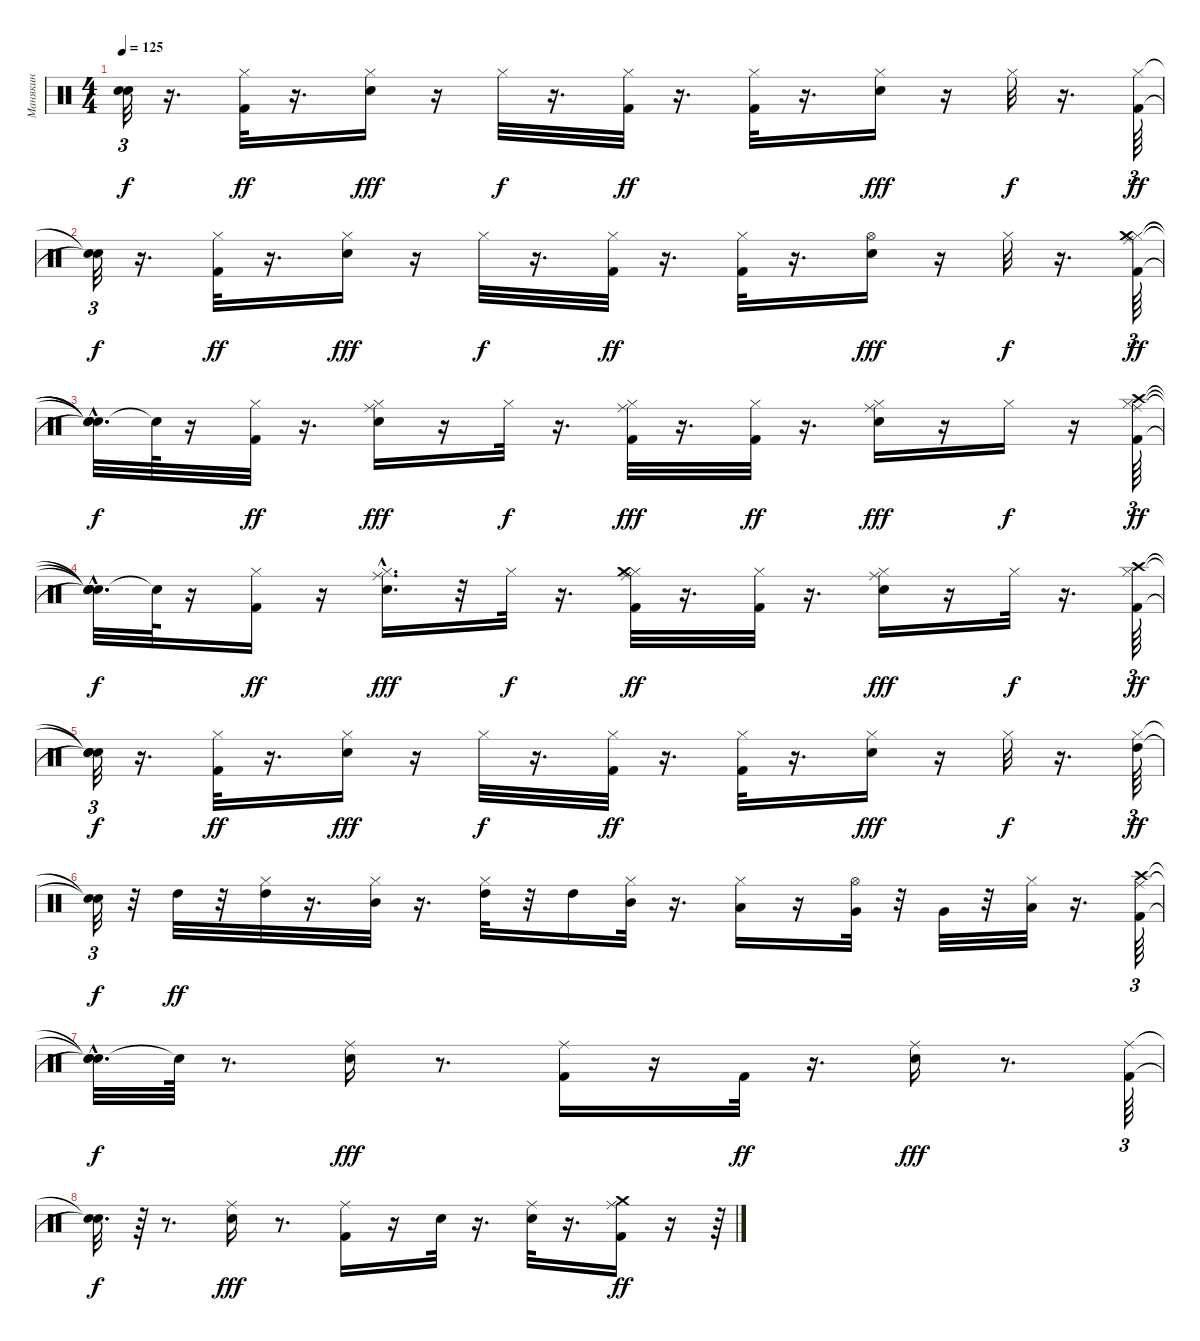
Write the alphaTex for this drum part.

\track ("Манякин" "Манякин") {instrument percussion}
\staff {score}
\articulation defaults
\ts (4 4)
\tempo 125
\clef neutral
\ks c
("Snare (hit)"{t} "Snare (hit)"{t}).32{tu (3 2) dy f} r.16{d} ("Kick (hit) 2" "Hi-Hat (closed)").32{dy ff} r.16{d} ("Snare (hit) 2" "Hi-Hat (closed)").16{dy fff} r.16 "Hi-Hat (closed)".32{dy f} r.16{d} ("Kick (hit) 2" "Hi-Hat (closed)").32{dy ff} r.16{d} ("Kick (hit) 2" "Hi-Hat (closed)").32 r.16{d} ("Snare (hit) 2" "Hi-Hat (closed)").16{dy fff} r.16 "Hi-Hat (closed)".32{dy f} r.16{d} ("Kick (hit) 2" "Hi-Hat (closed)").64{tu (3 2) dy ff} |
("Snare (hit)"{t} "Snare (hit)"{t}).32{tu (3 2) dy f} r.16{d} ("Kick (hit) 2" "Hi-Hat (closed)").32{dy ff} r.16{d} ("Snare (hit) 2" "Hi-Hat (closed)").16{dy fff} r.16 "Hi-Hat (closed)".32{dy f} r.16{d} ("Kick (hit) 2" "Hi-Hat (closed)").32{dy ff} r.16{d} ("Kick (hit) 2" "Hi-Hat (closed)").32 r.16{d} ("Snare (hit) 2" "Hi-Hat (open)").16{dy fff} r.16 "Hi-Hat (closed)".32{dy f} r.16{d} ("Kick (hit) 2" "Hi-Hat (closed)" "Ride (middle)" "Crash medium (hit)").64{tu (3 2) dy ff} |
("Snare (hit)"{t} "Snare (hit)"{t} "Snare (hit)"{t} "Snare (hit)"{hac t}).32{d dy f} "Snare (hit)"{t}.64 r.16 ("Kick (hit) 2" "Hi-Hat (closed)").32{dy ff} r.16{d} ("Snare (hit) 2" "Hi-Hat (closed)" "Ride (middle)").16{dy fff} r.16 "Hi-Hat (closed)".32{dy f} r.16{d} ("Kick (hit) 2" "Hi-Hat (closed)" "Ride (middle)").32{dy fff} r.16{d} ("Kick (hit) 2" "Hi-Hat (closed)").32{dy ff} r.16{d} ("Snare (hit) 2" "Hi-Hat (closed)" "Ride (middle)").16{dy fff} r.16 "Hi-Hat (closed)".16{dy f} r.16 ("Kick (hit) 2" "Hi-Hat (closed)" "Ride (middle)" "Crash high (hit)").64{tu (3 2) dy ff} |
("Snare (hit)"{t} "Snare (hit)"{hac t} "Snare (hit)"{t} "Snare (hit)"{t}).32{d dy f} "Snare (hit)"{t}.64 r.16 ("Kick (hit) 2" "Hi-Hat (closed)").16{dy ff} r.16 ("Snare (hit) 2"{hac} "Hi-Hat (closed)" "Ride (middle)").16{d dy fff} r.32 "Hi-Hat (closed)".32{dy f} r.16{d} ("Kick (hit) 2" "Hi-Hat (closed)" "Ride (middle)" "Crash medium (hit)").32{dy ff} r.16{d} ("Kick (hit) 2" "Hi-Hat (closed)").32 r.16{d} ("Snare (hit) 2" "Hi-Hat (closed)" "Ride (middle)").16{dy fff} r.16 "Hi-Hat (closed)".32{dy f} r.16{d} ("Kick (hit) 2" "Hi-Hat (closed)" "Crash high (hit)").64{tu (3 2) dy ff} |
("Snare (hit)"{t} "Snare (hit)"{t} "Snare (hit)"{t}).32{tu (3 2) dy f} r.16{d} ("Kick (hit) 2" "Hi-Hat (closed)").32{dy ff} r.16{d} ("Snare (hit) 2" "Hi-Hat (closed)").16{dy fff} r.16 "Hi-Hat (closed)".32{dy f} r.16{d} ("Kick (hit) 2" "Hi-Hat (closed)").32{dy ff} r.16{d} ("Kick (hit) 2" "Hi-Hat (closed)").32 r.16{d} ("Snare (hit) 2" "Hi-Hat (closed)").16{dy fff} r.16 "Hi-Hat (closed)".32{dy f} r.16{d} ("Hi-Hat (closed)" "High Tom (hit)").64{tu (3 2) dy ff} |
("Snare (hit)"{t} "Snare (hit)"{t}).32{tu (3 2) dy f} r.32 "High Tom (hit)".32{dy ff} r.32 ("Hi-Hat (closed)" "High Tom (hit)").32 r.16{d} ("Hi-Hat (closed)" "Mid Tom (hit)").32 r.16{d} ("Hi-Hat (closed)" "High Tom (hit)").32 r.32 "High Tom (hit)".16 ("Hi-Hat (closed)" "Mid Tom (hit)").32 r.16{d} ("Hi-Hat (closed)" "Low Tom (hit)").16 r.16 ("Hi-Hat (open)" "Very Low Tom (hit)").32 r.32 "Very Low Tom (hit)".32 r.32 ("Hi-Hat (closed)" "Low Floor Tom (hit)").32 r.16{d} ("Kick (hit) 2" "Ride (middle)" "Crash high (hit)").64{tu (3 2)} |
("Snare (hit)"{t} "Snare (hit)"{hac t} "Snare (hit)"{t}).32{d dy f} "Snare (hit)"{t}.64 r.8{d} ("Snare (hit) 2" "Ride (middle)").16{dy fff} r.8{d} ("Kick (hit) 2" "Ride (middle)").16 r.16 "Kick (hit) 2".32{dy ff} r.16{d} ("Snare (hit) 2" "Ride (middle)").16{dy fff} r.8{d} ("Kick (hit) 2" "Ride (middle)").64{tu (3 2)} |
("Snare (hit)"{t} "Snare (hit)"{t}).32{d dy f} r.64 r.8{d} ("Snare (hit) 2" "Ride (middle)").16{dy fff} r.8{d} ("Kick (hit) 2" "Ride (middle)").16 r.16 "Snare (hit) 2".32 r.16{d} ("Snare (hit) 2" "Ride (middle)").32 r.16{d} ("Kick (hit) 2" "Ride (middle)" "Crash medium (hit)").16{dy ff} r.16 r.64{tu (3 2)}
